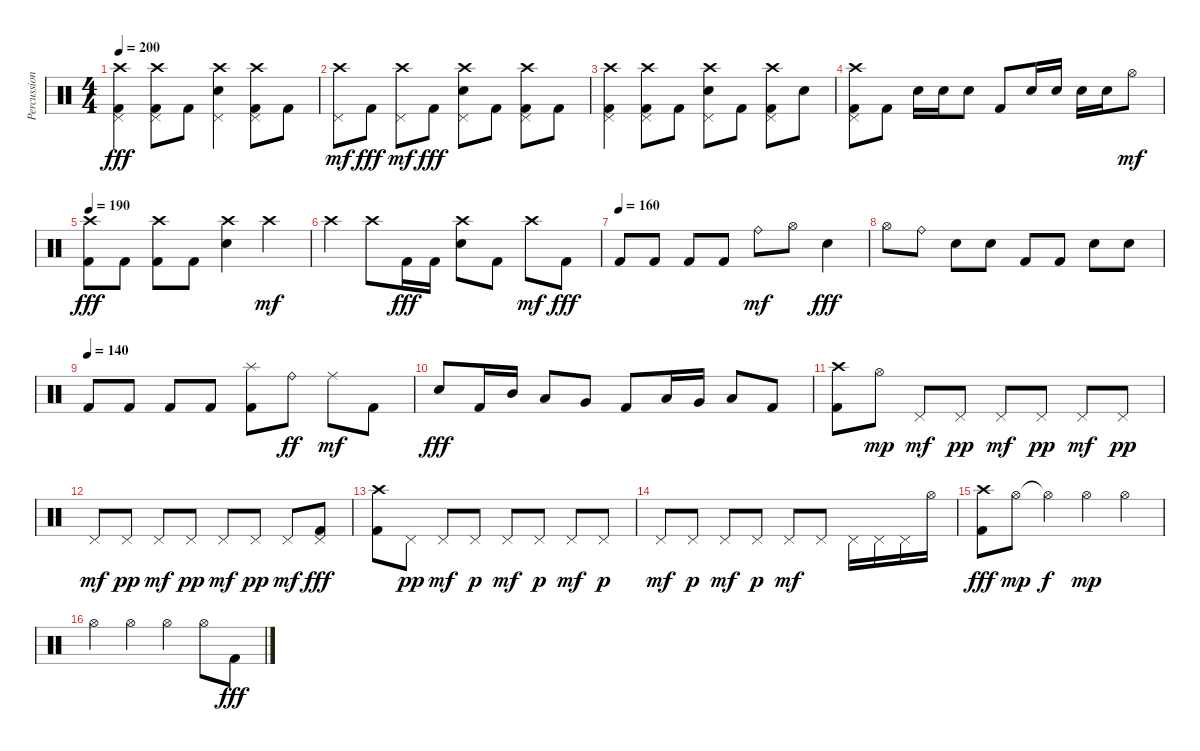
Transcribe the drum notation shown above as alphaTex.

\track ("Percussion" "Percussion") {instrument percussion}
\staff {score}
\articulation defaults
\ts (4 4)
\tempo 200
\clef neutral
\ks c
("Crash high (hit)" "Pedal Hi-Hat (hit)" "Kick (hit) 2").4{dy fff} ("Crash high (hit)" "Pedal Hi-Hat (hit)" "Kick (hit) 2").8 "Kick (hit) 2".8 ("Crash high (hit)" "Pedal Hi-Hat (hit)" "Electric Snare (hit)").4 ("Crash high (hit)" "Pedal Hi-Hat (hit)" "Kick (hit) 2").8 "Kick (hit) 2".8 |
("Crash high (hit)" "Pedal Hi-Hat (hit)").8{dy mf} "Kick (hit) 2".8{dy fff} ("Crash high (hit)" "Pedal Hi-Hat (hit)").8{dy mf} "Kick (hit) 2".8{dy fff} ("Crash high (hit)" "Pedal Hi-Hat (hit)" "Electric Snare (hit)").8 "Kick (hit) 2".8 ("Crash high (hit)" "Pedal Hi-Hat (hit)" "Kick (hit) 2").8 "Kick (hit) 2".8 |
("Crash high (hit)" "Pedal Hi-Hat (hit)" "Kick (hit) 2").4 ("Crash high (hit)" "Pedal Hi-Hat (hit)" "Kick (hit) 2").8 "Kick (hit) 2".8 ("Crash high (hit)" "Pedal Hi-Hat (hit)" "Electric Snare (hit)").8 "Kick (hit) 2".8 ("Crash high (hit)" "Pedal Hi-Hat (hit)" "Kick (hit) 2").8 "Electric Snare (hit)".8 |
("Crash high (hit)" "Pedal Hi-Hat (hit)" "Kick (hit) 2").8 "Kick (hit) 2".8 "Electric Snare (hit)".16 "Electric Snare (hit)".16 "Electric Snare (hit)".8 "Kick (hit) 2".8 "Electric Snare (hit)".16 "Electric Snare (hit)".16 "Electric Snare (hit)".16 "Electric Snare (hit)".16 "Hi-Hat (open)".8{dy mf} |
\tempo 190
("Crash high (hit)" "Kick (hit) 2").8{dy fff} "Kick (hit) 2".8 ("Crash high (hit)" "Kick (hit) 2").8 "Kick (hit) 2".8 ("Crash high (hit)" "Electric Snare (hit)").4 "Crash high (hit)".4{dy mf} |
"Crash high (hit)".4 "Crash high (hit)".8 "Kick (hit) 2".16{dy fff} "Kick (hit) 2".16 ("Crash high (hit)" "Electric Snare (hit)").8 "Kick (hit) 2".8 "Crash high (hit)".8{dy mf} "Kick (hit) 2".8{dy fff} |
\tempo (160)
"Kick (hit) 2".8 "Kick (hit) 2".8 "Kick (hit) 2".8 "Kick (hit) 2".8 "Ride (bell)".8{dy mf} "Hi-Hat (open)".8 "Electric Snare (hit)".4{dy fff} |
"Hi-Hat (open)".8 "Ride (bell)".8 "Electric Snare (hit)".8 "Electric Snare (hit)".8 "Kick (hit) 2".8 "Kick (hit) 2".8 "Electric Snare (hit)".8 "Electric Snare (hit)".8 |
\tempo (140)
"Kick (hit) 2".8 "Kick (hit) 2".8 "Kick (hit) 2".8 "Kick (hit) 2".8 ("Splash (hit)" "Kick (hit) 2").8 "Ride (bell)".8{dy ff} "Ride (middle)".8{dy mf} "Kick (hit) 2".8 |
"Electric Snare (hit)".8{dy fff} "Kick (hit) 2".16 "Mid Tom (hit)".16 "Low Tom (hit)".8 "Very Low Tom (hit)".8 "Kick (hit) 2".8 "Low Tom (hit)".16 "Very Low Tom (hit)".16 "Low Floor Tom (hit)".8 "Kick (hit) 2".8 |
("Crash high (hit)" "Kick (hit) 2").8 "Hi-Hat (open)".8{dy mp} "Pedal Hi-Hat (hit)".8{dy mf} "Pedal Hi-Hat (hit)".8{dy pp} "Pedal Hi-Hat (hit)".8{dy mf} "Pedal Hi-Hat (hit)".8{dy pp} "Pedal Hi-Hat (hit)".8{dy mf} "Pedal Hi-Hat (hit)".8{dy pp} |
"Pedal Hi-Hat (hit)".8{dy mf} "Pedal Hi-Hat (hit)".8{dy pp} "Pedal Hi-Hat (hit)".8{dy mf} "Pedal Hi-Hat (hit)".8{dy pp} "Pedal Hi-Hat (hit)".8{dy mf} "Pedal Hi-Hat (hit)".8{dy pp} "Pedal Hi-Hat (hit)".8{dy mf} ("Pedal Hi-Hat (hit)" "Kick (hit) 2").8{dy fff} |
("Crash high (hit)" "Kick (hit) 2").8 "Pedal Hi-Hat (hit)".8{dy pp} "Pedal Hi-Hat (hit)".8{dy mf} "Pedal Hi-Hat (hit)".8{dy p} "Pedal Hi-Hat (hit)".8{dy mf} "Pedal Hi-Hat (hit)".8{dy p} "Pedal Hi-Hat (hit)".8{dy mf} "Pedal Hi-Hat (hit)".8{dy p} |
"Pedal Hi-Hat (hit)".8{dy mf} "Pedal Hi-Hat (hit)".8{dy p} "Pedal Hi-Hat (hit)".8{dy mf} "Pedal Hi-Hat (hit)".8{dy p} "Pedal Hi-Hat (hit)".8{dy mf} "Pedal Hi-Hat (hit)".8 "Pedal Hi-Hat (hit)".16 "Pedal Hi-Hat (hit)".16 "Pedal Hi-Hat (hit)".16 "Hi-Hat (open)".16 |
("Crash high (hit)" "Kick (hit) 2").8{dy fff} "Hi-Hat (open)".8{dy mp} "Hi-Hat (open)"{t}.4{dy f} "Hi-Hat (open)".4{dy mp} "Hi-Hat (open)".4 |
"Hi-Hat (open)".4 "Hi-Hat (open)".4 "Hi-Hat (open)".4 "Hi-Hat (open)".8 "Kick (hit) 2".8{dy fff}
